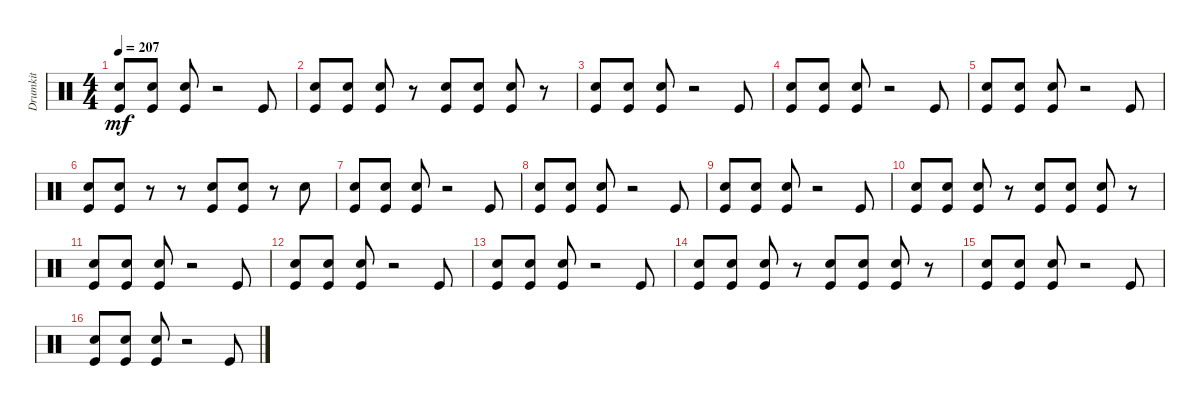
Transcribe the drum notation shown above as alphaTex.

\track ("Drumkit" "Drumkit") {instrument percussion}
\staff {score}
\articulation defaults
\ts (4 4)
\tempo 207
\clef neutral
\ks c
("Kick (hit)" "Snare (hit) 2").8{dy mf} ("Kick (hit)" "Snare (hit) 2").8 ("Kick (hit)" "Snare (hit) 2").8 r.2 "Kick (hit)".8 |
("Kick (hit)" "Snare (hit) 2").8 ("Kick (hit)" "Snare (hit) 2").8 ("Kick (hit)" "Snare (hit) 2").8 r.8 ("Kick (hit)" "Snare (hit) 2").8 ("Kick (hit)" "Snare (hit) 2").8 ("Kick (hit)" "Snare (hit) 2").8 r.8 |
("Kick (hit)" "Snare (hit) 2").8 ("Kick (hit)" "Snare (hit) 2").8 ("Kick (hit)" "Snare (hit) 2").8 r.2 "Kick (hit)".8 |
("Kick (hit)" "Snare (hit) 2").8 ("Kick (hit)" "Snare (hit) 2").8 ("Kick (hit)" "Snare (hit) 2").8 r.2 "Kick (hit)".8 |
("Kick (hit)" "Snare (hit) 2").8 ("Kick (hit)" "Snare (hit) 2").8 ("Kick (hit)" "Snare (hit) 2").8 r.2 "Kick (hit)".8 |
("Kick (hit)" "Snare (hit) 2").8 ("Kick (hit)" "Snare (hit) 2").8 r.8 r.8 ("Kick (hit)" "Snare (hit) 2").8 ("Kick (hit)" "Snare (hit) 2").8 r.8 "Snare (hit) 2".8 |
("Kick (hit)" "Snare (hit) 2").8 ("Kick (hit)" "Snare (hit) 2").8 ("Kick (hit)" "Snare (hit) 2").8 r.2 "Kick (hit)".8 |
("Kick (hit)" "Snare (hit) 2").8 ("Kick (hit)" "Snare (hit) 2").8 ("Kick (hit)" "Snare (hit) 2").8 r.2 "Kick (hit)".8 |
("Kick (hit)" "Snare (hit) 2").8 ("Kick (hit)" "Snare (hit) 2").8 ("Kick (hit)" "Snare (hit) 2").8 r.2 "Kick (hit)".8 |
("Kick (hit)" "Snare (hit) 2").8 ("Kick (hit)" "Snare (hit) 2").8 ("Kick (hit)" "Snare (hit) 2").8 r.8 ("Kick (hit)" "Snare (hit) 2").8 ("Kick (hit)" "Snare (hit) 2").8 ("Kick (hit)" "Snare (hit) 2").8 r.8 |
("Kick (hit)" "Snare (hit) 2").8 ("Kick (hit)" "Snare (hit) 2").8 ("Kick (hit)" "Snare (hit) 2").8 r.2 "Kick (hit)".8 |
("Kick (hit)" "Snare (hit) 2").8 ("Kick (hit)" "Snare (hit) 2").8 ("Kick (hit)" "Snare (hit) 2").8 r.2 "Kick (hit)".8 |
("Kick (hit)" "Snare (hit) 2").8 ("Kick (hit)" "Snare (hit) 2").8 ("Kick (hit)" "Snare (hit) 2").8 r.2 "Kick (hit)".8 |
("Kick (hit)" "Snare (hit) 2").8 ("Kick (hit)" "Snare (hit) 2").8 ("Kick (hit)" "Snare (hit) 2").8 r.8 ("Kick (hit)" "Snare (hit) 2").8 ("Kick (hit)" "Snare (hit) 2").8 ("Kick (hit)" "Snare (hit) 2").8 r.8 |
("Kick (hit)" "Snare (hit) 2").8 ("Kick (hit)" "Snare (hit) 2").8 ("Kick (hit)" "Snare (hit) 2").8 r.2 "Kick (hit)".8 |
("Kick (hit)" "Snare (hit) 2").8 ("Kick (hit)" "Snare (hit) 2").8 ("Kick (hit)" "Snare (hit) 2").8 r.2 "Kick (hit)".8
